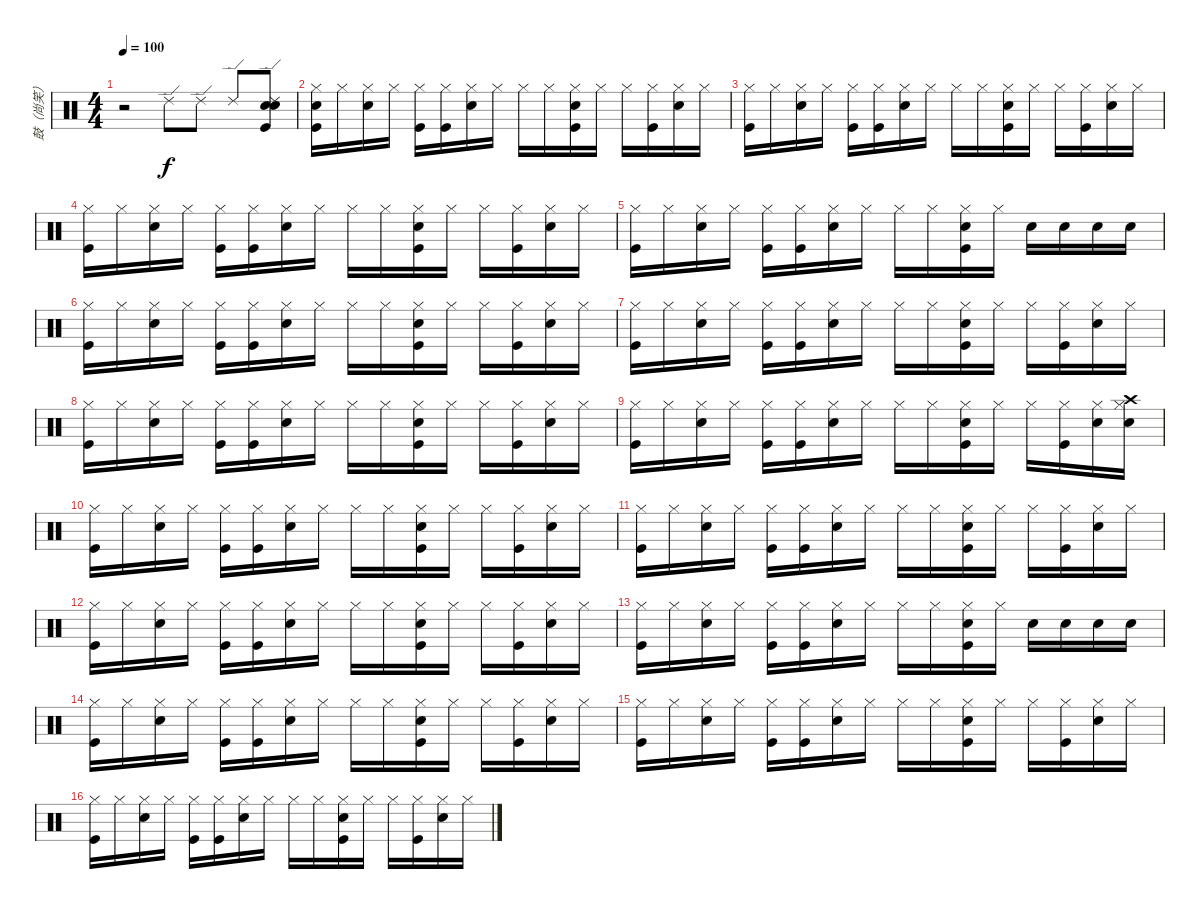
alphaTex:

\track ("鼓（尚笑）" "鼓（尚笑）") {instrument percussion}
\staff {score}
\articulation defaults
\ts (4 4)
\tempo 100
\clef neutral
\ks c
r.2{dy f} "Ride (edge) 2".8 "Ride (edge) 2".8 "Ride (edge) 2".8 ("Ride (edge) 2" "Snare (hit) 2" "Snare (hit) 2" "Kick (hit)").8 |
("Hi-Hat (closed)" "Snare (hit) 2" "Kick (hit)").16 "Hi-Hat (closed)".16 ("Hi-Hat (closed)" "Snare (hit) 2").16 "Hi-Hat (closed)".16 ("Hi-Hat (closed)" "Kick (hit)").16 ("Hi-Hat (closed)" "Kick (hit)").16 ("Hi-Hat (closed)" "Snare (hit) 2").16 "Hi-Hat (closed)".16 "Hi-Hat (closed)".16 "Hi-Hat (closed)".16 ("Hi-Hat (closed)" "Snare (hit) 2" "Kick (hit)").16 "Hi-Hat (closed)".16 "Hi-Hat (closed)".16 ("Hi-Hat (closed)" "Kick (hit)").16 ("Hi-Hat (closed)" "Snare (hit) 2").16 "Hi-Hat (closed)".16 |
("Hi-Hat (closed)" "Kick (hit)").16 "Hi-Hat (closed)".16 ("Hi-Hat (closed)" "Snare (hit) 2").16 "Hi-Hat (closed)".16 ("Hi-Hat (closed)" "Kick (hit)").16 ("Hi-Hat (closed)" "Kick (hit)").16 ("Hi-Hat (closed)" "Snare (hit) 2").16 "Hi-Hat (closed)".16 "Hi-Hat (closed)".16 "Hi-Hat (closed)".16 ("Hi-Hat (closed)" "Snare (hit) 2" "Kick (hit)").16 "Hi-Hat (closed)".16 "Hi-Hat (closed)".16 ("Hi-Hat (closed)" "Kick (hit)").16 ("Hi-Hat (closed)" "Snare (hit) 2").16 "Hi-Hat (closed)".16 |
("Hi-Hat (closed)" "Kick (hit)").16 "Hi-Hat (closed)".16 ("Hi-Hat (closed)" "Snare (hit) 2").16 "Hi-Hat (closed)".16 ("Hi-Hat (closed)" "Kick (hit)").16 ("Hi-Hat (closed)" "Kick (hit)").16 ("Hi-Hat (closed)" "Snare (hit) 2").16 "Hi-Hat (closed)".16 "Hi-Hat (closed)".16 "Hi-Hat (closed)".16 ("Hi-Hat (closed)" "Snare (hit) 2" "Kick (hit)").16 "Hi-Hat (closed)".16 "Hi-Hat (closed)".16 ("Hi-Hat (closed)" "Kick (hit)").16 ("Hi-Hat (closed)" "Snare (hit) 2").16 "Hi-Hat (closed)".16 |
("Hi-Hat (closed)" "Kick (hit)").16 "Hi-Hat (closed)".16 ("Hi-Hat (closed)" "Snare (hit) 2").16 "Hi-Hat (closed)".16 ("Hi-Hat (closed)" "Kick (hit)").16 ("Hi-Hat (closed)" "Kick (hit)").16 ("Hi-Hat (closed)" "Snare (hit) 2").16 "Hi-Hat (closed)".16 "Hi-Hat (closed)".16 "Hi-Hat (closed)".16 ("Hi-Hat (closed)" "Snare (hit) 2" "Kick (hit)").16 "Hi-Hat (closed)".16 "Snare (hit) 2".16 "Snare (hit) 2".16 "Snare (hit) 2".16 "Snare (hit) 2".16 |
("Hi-Hat (closed)" "Kick (hit)").16 "Hi-Hat (closed)".16 ("Hi-Hat (closed)" "Snare (hit) 2").16 "Hi-Hat (closed)".16 ("Hi-Hat (closed)" "Kick (hit)").16 ("Hi-Hat (closed)" "Kick (hit)").16 ("Hi-Hat (closed)" "Snare (hit) 2").16 "Hi-Hat (closed)".16 "Hi-Hat (closed)".16 "Hi-Hat (closed)".16 ("Hi-Hat (closed)" "Snare (hit) 2" "Kick (hit)").16 "Hi-Hat (closed)".16 "Hi-Hat (closed)".16 ("Hi-Hat (closed)" "Kick (hit)").16 ("Hi-Hat (closed)" "Snare (hit) 2").16 "Hi-Hat (closed)".16 |
("Hi-Hat (closed)" "Kick (hit)").16 "Hi-Hat (closed)".16 ("Hi-Hat (closed)" "Snare (hit) 2").16 "Hi-Hat (closed)".16 ("Hi-Hat (closed)" "Kick (hit)").16 ("Hi-Hat (closed)" "Kick (hit)").16 ("Hi-Hat (closed)" "Snare (hit) 2").16 "Hi-Hat (closed)".16 "Hi-Hat (closed)".16 "Hi-Hat (closed)".16 ("Hi-Hat (closed)" "Snare (hit) 2" "Kick (hit)").16 "Hi-Hat (closed)".16 "Hi-Hat (closed)".16 ("Hi-Hat (closed)" "Kick (hit)").16 ("Hi-Hat (closed)" "Snare (hit) 2").16 "Hi-Hat (closed)".16 |
("Hi-Hat (closed)" "Kick (hit)").16 "Hi-Hat (closed)".16 ("Hi-Hat (closed)" "Snare (hit) 2").16 "Hi-Hat (closed)".16 ("Hi-Hat (closed)" "Kick (hit)").16 ("Hi-Hat (closed)" "Kick (hit)").16 ("Hi-Hat (closed)" "Snare (hit) 2").16 "Hi-Hat (closed)".16 "Hi-Hat (closed)".16 "Hi-Hat (closed)".16 ("Hi-Hat (closed)" "Snare (hit) 2" "Kick (hit)").16 "Hi-Hat (closed)".16 "Hi-Hat (closed)".16 ("Hi-Hat (closed)" "Kick (hit)").16 ("Hi-Hat (closed)" "Snare (hit) 2").16 "Hi-Hat (closed)".16 |
("Hi-Hat (closed)" "Kick (hit)").16 "Hi-Hat (closed)".16 ("Hi-Hat (closed)" "Snare (hit) 2").16 "Hi-Hat (closed)".16 ("Hi-Hat (closed)" "Kick (hit)").16 ("Hi-Hat (closed)" "Kick (hit)").16 ("Hi-Hat (closed)" "Snare (hit) 2").16 "Hi-Hat (closed)".16 "Hi-Hat (closed)".16 "Hi-Hat (closed)".16 ("Hi-Hat (closed)" "Snare (hit) 2" "Kick (hit)").16 "Hi-Hat (closed)".16 "Hi-Hat (closed)".16 ("Hi-Hat (closed)" "Kick (hit)").16 ("Hi-Hat (closed)" "Snare (hit) 2").16 ("Hi-Hat (closed)" "Snare (hit) 2" "Crash high (hit)").16 |
("Hi-Hat (closed)" "Kick (hit)").16 "Hi-Hat (closed)".16 ("Hi-Hat (closed)" "Snare (hit) 2").16 "Hi-Hat (closed)".16 ("Hi-Hat (closed)" "Kick (hit)").16 ("Hi-Hat (closed)" "Kick (hit)").16 ("Hi-Hat (closed)" "Snare (hit) 2").16 "Hi-Hat (closed)".16 "Hi-Hat (closed)".16 "Hi-Hat (closed)".16 ("Hi-Hat (closed)" "Snare (hit) 2" "Kick (hit)").16 "Hi-Hat (closed)".16 "Hi-Hat (closed)".16 ("Hi-Hat (closed)" "Kick (hit)").16 ("Hi-Hat (closed)" "Snare (hit) 2").16 "Hi-Hat (closed)".16 |
("Hi-Hat (closed)" "Kick (hit)").16 "Hi-Hat (closed)".16 ("Hi-Hat (closed)" "Snare (hit) 2").16 "Hi-Hat (closed)".16 ("Hi-Hat (closed)" "Kick (hit)").16 ("Hi-Hat (closed)" "Kick (hit)").16 ("Hi-Hat (closed)" "Snare (hit) 2").16 "Hi-Hat (closed)".16 "Hi-Hat (closed)".16 "Hi-Hat (closed)".16 ("Hi-Hat (closed)" "Snare (hit) 2" "Kick (hit)").16 "Hi-Hat (closed)".16 "Hi-Hat (closed)".16 ("Hi-Hat (closed)" "Kick (hit)").16 ("Hi-Hat (closed)" "Snare (hit) 2").16 "Hi-Hat (closed)".16 |
("Hi-Hat (closed)" "Kick (hit)").16 "Hi-Hat (closed)".16 ("Hi-Hat (closed)" "Snare (hit) 2").16 "Hi-Hat (closed)".16 ("Hi-Hat (closed)" "Kick (hit)").16 ("Hi-Hat (closed)" "Kick (hit)").16 ("Hi-Hat (closed)" "Snare (hit) 2").16 "Hi-Hat (closed)".16 "Hi-Hat (closed)".16 "Hi-Hat (closed)".16 ("Hi-Hat (closed)" "Snare (hit) 2" "Kick (hit)").16 "Hi-Hat (closed)".16 "Hi-Hat (closed)".16 ("Hi-Hat (closed)" "Kick (hit)").16 ("Hi-Hat (closed)" "Snare (hit) 2").16 "Hi-Hat (closed)".16 |
("Hi-Hat (closed)" "Kick (hit)").16 "Hi-Hat (closed)".16 ("Hi-Hat (closed)" "Snare (hit) 2").16 "Hi-Hat (closed)".16 ("Hi-Hat (closed)" "Kick (hit)").16 ("Hi-Hat (closed)" "Kick (hit)").16 ("Hi-Hat (closed)" "Snare (hit) 2").16 "Hi-Hat (closed)".16 "Hi-Hat (closed)".16 "Hi-Hat (closed)".16 ("Hi-Hat (closed)" "Snare (hit) 2" "Kick (hit)").16 "Hi-Hat (closed)".16 "Snare (hit) 2".16 "Snare (hit) 2".16 "Snare (hit) 2".16 "Snare (hit) 2".16 |
("Hi-Hat (closed)" "Kick (hit)").16 "Hi-Hat (closed)".16 ("Hi-Hat (closed)" "Snare (hit) 2").16 "Hi-Hat (closed)".16 ("Hi-Hat (closed)" "Kick (hit)").16 ("Hi-Hat (closed)" "Kick (hit)").16 ("Hi-Hat (closed)" "Snare (hit) 2").16 "Hi-Hat (closed)".16 "Hi-Hat (closed)".16 "Hi-Hat (closed)".16 ("Hi-Hat (closed)" "Snare (hit) 2" "Kick (hit)").16 "Hi-Hat (closed)".16 "Hi-Hat (closed)".16 ("Hi-Hat (closed)" "Kick (hit)").16 ("Hi-Hat (closed)" "Snare (hit) 2").16 "Hi-Hat (closed)".16 |
("Hi-Hat (closed)" "Kick (hit)").16 "Hi-Hat (closed)".16 ("Hi-Hat (closed)" "Snare (hit) 2").16 "Hi-Hat (closed)".16 ("Hi-Hat (closed)" "Kick (hit)").16 ("Hi-Hat (closed)" "Kick (hit)").16 ("Hi-Hat (closed)" "Snare (hit) 2").16 "Hi-Hat (closed)".16 "Hi-Hat (closed)".16 "Hi-Hat (closed)".16 ("Hi-Hat (closed)" "Snare (hit) 2" "Kick (hit)").16 "Hi-Hat (closed)".16 "Hi-Hat (closed)".16 ("Hi-Hat (closed)" "Kick (hit)").16 ("Hi-Hat (closed)" "Snare (hit) 2").16 "Hi-Hat (closed)".16 |
("Hi-Hat (closed)" "Kick (hit)").16 "Hi-Hat (closed)".16 ("Hi-Hat (closed)" "Snare (hit) 2").16 "Hi-Hat (closed)".16 ("Hi-Hat (closed)" "Kick (hit)").16 ("Hi-Hat (closed)" "Kick (hit)").16 ("Hi-Hat (closed)" "Snare (hit) 2").16 "Hi-Hat (closed)".16 "Hi-Hat (closed)".16 "Hi-Hat (closed)".16 ("Hi-Hat (closed)" "Snare (hit) 2" "Kick (hit)").16 "Hi-Hat (closed)".16 "Hi-Hat (closed)".16 ("Hi-Hat (closed)" "Kick (hit)").16 ("Hi-Hat (closed)" "Snare (hit) 2").16 "Hi-Hat (closed)".16
